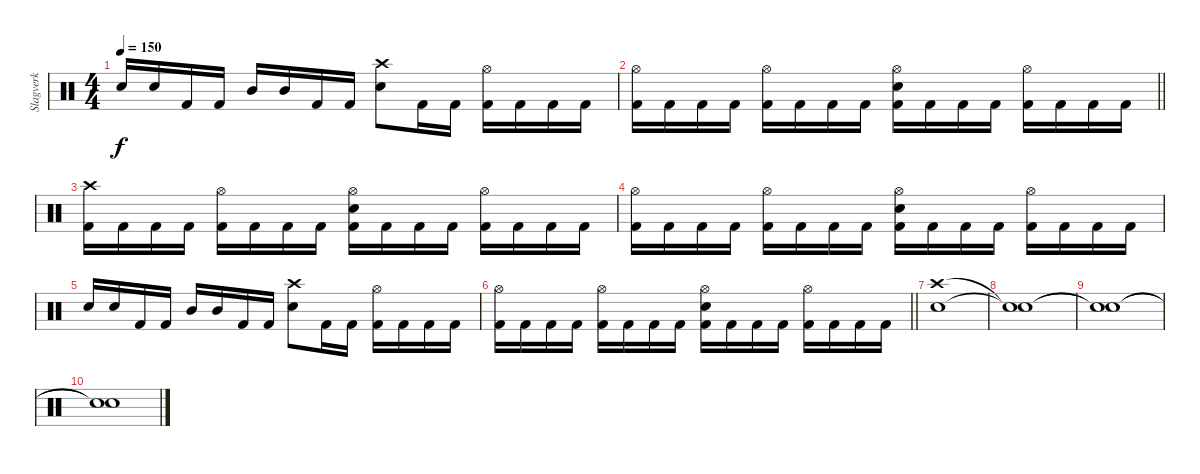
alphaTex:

\track ("Slagverk" "Slagverk") {instrument percussion}
\staff {score}
\articulation defaults
\ts (4 4)
\tempo 150
\clef neutral
\ks c "Electric Snare (hit)".16{dy f} "Electric Snare (hit)".16 "Kick (hit) 2".16 "Kick (hit) 2".16 "Mid Tom (hit)".16 "Mid Tom (hit)".16 "Kick (hit) 2".16 "Kick (hit) 2".16
("Crash high (hit)" "Electric Snare (hit)").8 "Kick (hit) 2".16 "Kick (hit) 2".16 ("Hi-Hat (open)" "Kick (hit) 2").16 "Kick (hit) 2".16 "Kick (hit) 2".16 "Kick (hit) 2".16 |
\barLineRight lightlight
("Hi-Hat (open)" "Kick (hit) 2").16 "Kick (hit) 2".16 "Kick (hit) 2".16 "Kick (hit) 2".16 ("Hi-Hat (open)" "Kick (hit) 2").16 "Kick (hit) 2".16 "Kick (hit) 2".16 "Kick (hit) 2".16 ("Hi-Hat (open)" "Electric Snare (hit)" "Kick (hit) 2").16 "Kick (hit) 2".16 "Kick (hit) 2".16 "Kick (hit) 2".16 ("Hi-Hat (open)" "Kick (hit) 2").16 "Kick (hit) 2".16 "Kick (hit) 2".16 "Kick (hit) 2".16 |
("Crash high (hit)" "Kick (hit) 2").16 "Kick (hit) 2".16 "Kick (hit) 2".16 "Kick (hit) 2".16 ("Hi-Hat (open)" "Kick (hit) 2").16 "Kick (hit) 2".16 "Kick (hit) 2".16 "Kick (hit) 2".16 ("Hi-Hat (open)" "Electric Snare (hit)" "Kick (hit) 2").16 "Kick (hit) 2".16 "Kick (hit) 2".16 "Kick (hit) 2".16 ("Hi-Hat (open)" "Kick (hit) 2").16 "Kick (hit) 2".16 "Kick (hit) 2".16 "Kick (hit) 2".16 |
("Hi-Hat (open)" "Kick (hit) 2").16 "Kick (hit) 2".16 "Kick (hit) 2".16 "Kick (hit) 2".16 ("Hi-Hat (open)" "Kick (hit) 2").16 "Kick (hit) 2".16 "Kick (hit) 2".16 "Kick (hit) 2".16 ("Hi-Hat (open)" "Electric Snare (hit)" "Kick (hit) 2").16 "Kick (hit) 2".16 "Kick (hit) 2".16 "Kick (hit) 2".16 ("Hi-Hat (open)" "Kick (hit) 2").16 "Kick (hit) 2".16 "Kick (hit) 2".16 "Kick (hit) 2".16 |
"Electric Snare (hit)".16 "Electric Snare (hit)".16 "Kick (hit) 2".16 "Kick (hit) 2".16 "Mid Tom (hit)".16 "Mid Tom (hit)".16 "Kick (hit) 2".16 "Kick (hit) 2".16 ("Crash high (hit)" "Electric Snare (hit)").8 "Kick (hit) 2".16 "Kick (hit) 2".16 ("Hi-Hat (open)" "Kick (hit) 2").16 "Kick (hit) 2".16 "Kick (hit) 2".16 "Kick (hit) 2".16 |
\barLineRight lightlight
("Hi-Hat (open)" "Kick (hit) 2").16 "Kick (hit) 2".16 "Kick (hit) 2".16 "Kick (hit) 2".16 ("Hi-Hat (open)" "Kick (hit) 2").16 "Kick (hit) 2".16 "Kick (hit) 2".16 "Kick (hit) 2".16 ("Hi-Hat (open)" "Electric Snare (hit)" "Kick (hit) 2").16 "Kick (hit) 2".16 "Kick (hit) 2".16 "Kick (hit) 2".16 ("Hi-Hat (open)" "Kick (hit) 2").16 "Kick (hit) 2".16 "Kick (hit) 2".16 "Kick (hit) 2".16 |
\section ("" "")
("Crash high (hit)" "Electric Snare (hit)").1 |
("Snare (hit)"{t} "Snare (hit)"{t}).1 |
("Snare (hit)"{t} "Snare (hit)"{t}).1 |
("Snare (hit)"{t} "Snare (hit)"{t}).1
